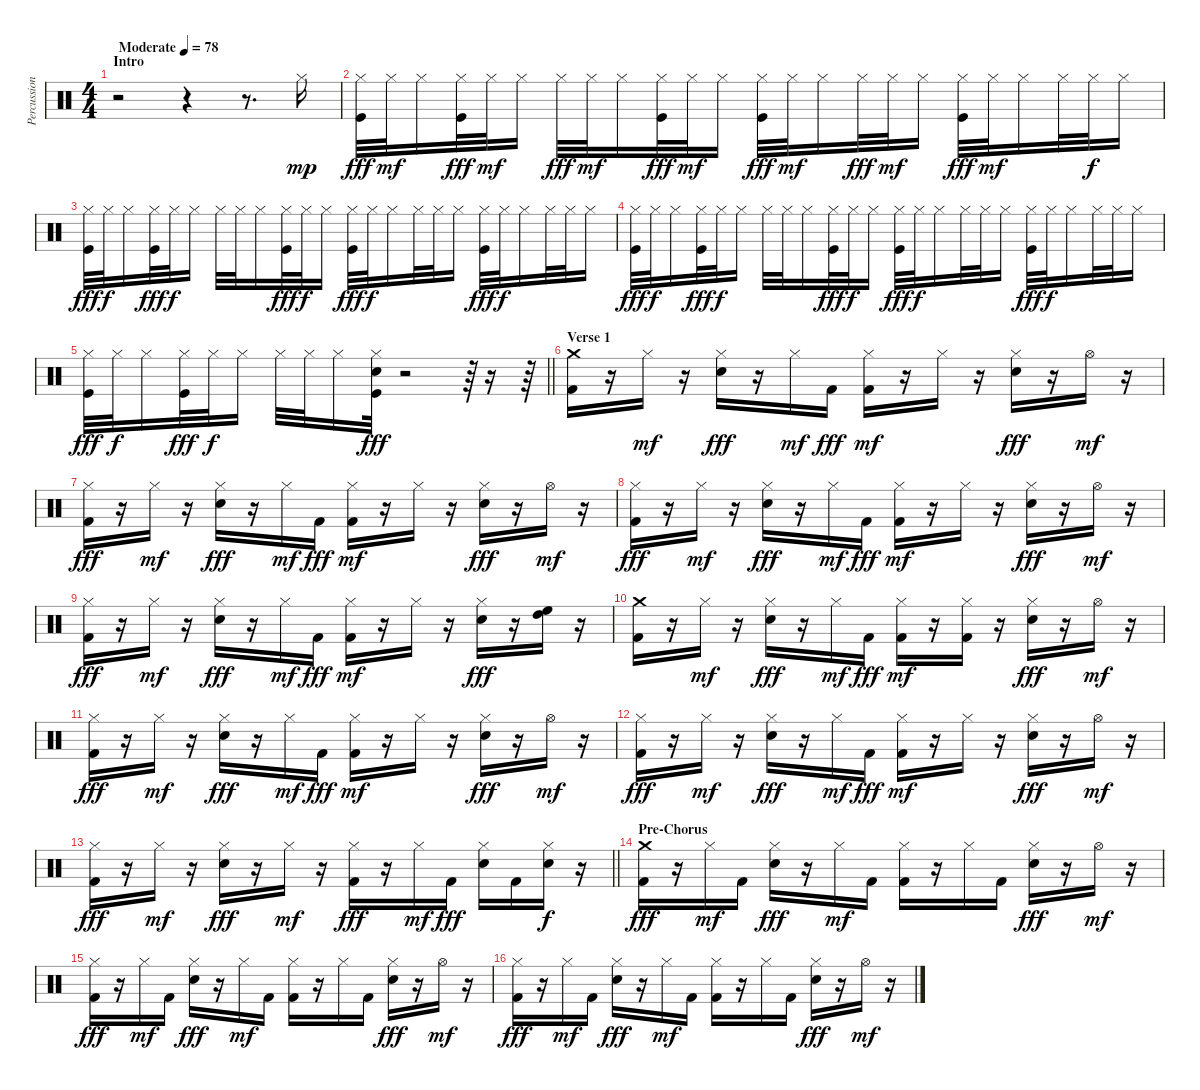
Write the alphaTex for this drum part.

\track ("Percussion" "Percussion") {instrument percussion}
\staff {score}
\articulation defaults
\ts (4 4)
\section ("" "Intro")
\tempo (78 "Moderate")
\clef neutral
\ks c
r.2{dy mp} r.4 r.8{d} "Hi-Hat (closed)".16 |
("Hi-Hat (closed)" "Kick (hit)").32{dy fff} "Hi-Hat (closed)".32{dy mf} "Hi-Hat (closed)".16 ("Hi-Hat (closed)" "Kick (hit)").32{dy fff} "Hi-Hat (closed)".32{dy mf} "Hi-Hat (closed)".16 "Hi-Hat (closed)".32{dy fff} "Hi-Hat (closed)".32{dy mf} "Hi-Hat (closed)".16 ("Hi-Hat (closed)" "Kick (hit)").32{dy fff} "Hi-Hat (closed)".32{dy mf} "Hi-Hat (closed)".16 ("Hi-Hat (closed)" "Kick (hit)").32{dy fff} "Hi-Hat (closed)".32{dy mf} "Hi-Hat (closed)".16 "Hi-Hat (closed)".32{dy fff} "Hi-Hat (closed)".32{dy mf} "Hi-Hat (closed)".16 ("Hi-Hat (closed)" "Kick (hit)").32{dy fff} "Hi-Hat (closed)".32{dy mf} "Hi-Hat (closed)".16 "Hi-Hat (closed)".32 "Hi-Hat (closed)".32{dy f} "Hi-Hat (closed)".16 |
("Hi-Hat (closed)" "Kick (hit)").32{dy fff} "Hi-Hat (closed)".32{dy f} "Hi-Hat (closed)".16 ("Hi-Hat (closed)" "Kick (hit)").32{dy fff} "Hi-Hat (closed)".32{dy f} "Hi-Hat (closed)".16 "Hi-Hat (closed)".32 "Hi-Hat (closed)".32 "Hi-Hat (closed)".16 ("Hi-Hat (closed)" "Kick (hit)").32{dy fff} "Hi-Hat (closed)".32{dy f} "Hi-Hat (closed)".16 ("Hi-Hat (closed)" "Kick (hit)").32{dy fff} "Hi-Hat (closed)".32{dy f} "Hi-Hat (closed)".16 "Hi-Hat (closed)".32 "Hi-Hat (closed)".32 "Hi-Hat (closed)".16 ("Hi-Hat (closed)" "Kick (hit)").32{dy fff} "Hi-Hat (closed)".32{dy f} "Hi-Hat (closed)".16 "Hi-Hat (closed)".32 "Hi-Hat (closed)".32 "Hi-Hat (closed)".16 |
("Hi-Hat (closed)" "Kick (hit)").32{dy fff} "Hi-Hat (closed)".32{dy f} "Hi-Hat (closed)".16 ("Hi-Hat (closed)" "Kick (hit)").32{dy fff} "Hi-Hat (closed)".32{dy f} "Hi-Hat (closed)".16 "Hi-Hat (closed)".32 "Hi-Hat (closed)".32 "Hi-Hat (closed)".16 ("Hi-Hat (closed)" "Kick (hit)").32{dy fff} "Hi-Hat (closed)".32{dy f} "Hi-Hat (closed)".16 ("Hi-Hat (closed)" "Kick (hit)").32{dy fff} "Hi-Hat (closed)".32{dy f} "Hi-Hat (closed)".16 "Hi-Hat (closed)".32 "Hi-Hat (closed)".32 "Hi-Hat (closed)".16 ("Hi-Hat (closed)" "Kick (hit)").32{dy fff} "Hi-Hat (closed)".32{dy f} "Hi-Hat (closed)".16 "Hi-Hat (closed)".32 "Hi-Hat (closed)".32 "Hi-Hat (closed)".16 |
\barLineRight lightlight
("Hi-Hat (closed)" "Kick (hit)").32{dy fff} "Hi-Hat (closed)".32{dy f} "Hi-Hat (closed)".16 ("Hi-Hat (closed)" "Kick (hit)").32{dy fff} "Hi-Hat (closed)".32{dy f} "Hi-Hat (closed)".16 "Hi-Hat (closed)".32 "Hi-Hat (closed)".32 "Hi-Hat (closed)".16 ("Hi-Hat (closed)" "Electric Snare (hit)" "Kick (hit)").32{dy fff} r.2 r.64 r.16 r.64 |
\section ("" "Verse 1")
("Crash medium (hit)" "Kick (hit) 2").16 r.16 "Hi-Hat (closed)".16{dy mf} r.16 ("Hi-Hat (closed)" "Electric Snare (hit)").16{dy fff} r.16 "Hi-Hat (closed)".16{dy mf} "Kick (hit) 2".16{dy fff} ("Hi-Hat (closed)" "Kick (hit) 2").16{dy mf} r.16 "Hi-Hat (closed)".16 r.16 ("Hi-Hat (closed)" "Electric Snare (hit)").16{dy fff} r.16 "Hi-Hat (open)".16{dy mf} r.16 |
("Hi-Hat (closed)" "Kick (hit) 2").16{dy fff} r.16 "Hi-Hat (closed)".16{dy mf} r.16 ("Hi-Hat (closed)" "Electric Snare (hit)").16{dy fff} r.16 "Hi-Hat (closed)".16{dy mf} "Kick (hit) 2".16{dy fff} ("Hi-Hat (closed)" "Kick (hit) 2").16{dy mf} r.16 "Hi-Hat (closed)".16 r.16 ("Hi-Hat (closed)" "Electric Snare (hit)").16{dy fff} r.16 "Hi-Hat (open)".16{dy mf} r.16 |
("Hi-Hat (closed)" "Kick (hit) 2").16{dy fff} r.16 "Hi-Hat (closed)".16{dy mf} r.16 ("Hi-Hat (closed)" "Electric Snare (hit)").16{dy fff} r.16 "Hi-Hat (closed)".16{dy mf} "Kick (hit) 2".16{dy fff} ("Hi-Hat (closed)" "Kick (hit) 2").16{dy mf} r.16 "Hi-Hat (closed)".16 r.16 ("Hi-Hat (closed)" "Electric Snare (hit)").16{dy fff} r.16 "Hi-Hat (open)".16{dy mf} r.16 |
("Hi-Hat (closed)" "Kick (hit) 2").16{dy fff} r.16 "Hi-Hat (closed)".16{dy mf} r.16 ("Hi-Hat (closed)" "Electric Snare (hit)").16{dy fff} r.16 "Hi-Hat (closed)".16{dy mf} "Kick (hit) 2".16{dy fff} ("Hi-Hat (closed)" "Kick (hit) 2").16{dy mf} r.16 "Hi-Hat (closed)".16 r.16 ("Hi-Hat (closed)" "Electric Snare (hit)").16{dy fff} r.16 ("High Floor Tom (hit)" "High Tom (hit)").16 r.16 |
("Crash medium (hit)" "Kick (hit) 2").16 r.16 "Hi-Hat (closed)".16{dy mf} r.16 ("Hi-Hat (closed)" "Electric Snare (hit)").16{dy fff} r.16 "Hi-Hat (closed)".16{dy mf} "Kick (hit) 2".16{dy fff} ("Hi-Hat (closed)" "Kick (hit) 2").16{dy mf} r.16 ("Hi-Hat (closed)" "Kick (hit) 2").16 r.16 ("Hi-Hat (closed)" "Electric Snare (hit)").16{dy fff} r.16 "Hi-Hat (open)".16{dy mf} r.16 |
("Hi-Hat (closed)" "Kick (hit) 2").16{dy fff} r.16 "Hi-Hat (closed)".16{dy mf} r.16 ("Hi-Hat (closed)" "Electric Snare (hit)").16{dy fff} r.16 "Hi-Hat (closed)".16{dy mf} "Kick (hit) 2".16{dy fff} ("Hi-Hat (closed)" "Kick (hit) 2").16{dy mf} r.16 "Hi-Hat (closed)".16 r.16 ("Hi-Hat (closed)" "Electric Snare (hit)").16{dy fff} r.16 "Hi-Hat (open)".16{dy mf} r.16 |
("Hi-Hat (closed)" "Kick (hit) 2").16{dy fff} r.16 "Hi-Hat (closed)".16{dy mf} r.16 ("Hi-Hat (closed)" "Electric Snare (hit)").16{dy fff} r.16 "Hi-Hat (closed)".16{dy mf} "Kick (hit) 2".16{dy fff} ("Hi-Hat (closed)" "Kick (hit) 2").16{dy mf} r.16 "Hi-Hat (closed)".16 r.16 ("Hi-Hat (closed)" "Electric Snare (hit)").16{dy fff} r.16 "Hi-Hat (open)".16{dy mf} r.16 |
\barLineRight lightlight
("Hi-Hat (closed)" "Kick (hit) 2").16{dy fff} r.16 "Hi-Hat (closed)".16{dy mf} r.16 ("Hi-Hat (closed)" "Electric Snare (hit)").16{dy fff} r.16 "Hi-Hat (closed)".16{dy mf} r.16 ("Hi-Hat (closed)" "Kick (hit) 2").16{dy fff} r.16 "Hi-Hat (closed)".16{dy mf} "Kick (hit) 2".16{dy fff} ("Hi-Hat (closed)" "Electric Snare (hit)").16 "Kick (hit) 2".16 ("Hi-Hat (closed)" "Electric Snare (hit)").16{dy f} r.16 |
\section ("" "Pre-Chorus")
("Crash medium (hit)" "Kick (hit) 2").16{dy fff} r.16 "Hi-Hat (closed)".16{dy mf} "Kick (hit) 2".16 ("Hi-Hat (closed)" "Electric Snare (hit)").16{dy fff} r.16 "Hi-Hat (closed)".16{dy mf} "Kick (hit) 2".16 ("Hi-Hat (closed)" "Kick (hit) 2").16 r.16 "Hi-Hat (closed)".16 "Kick (hit) 2".16 ("Hi-Hat (closed)" "Electric Snare (hit)").16{dy fff} r.16 "Hi-Hat (open)".16{dy mf} r.16 |
("Hi-Hat (closed)" "Kick (hit) 2").16{dy fff} r.16 "Hi-Hat (closed)".16{dy mf} "Kick (hit) 2".16 ("Hi-Hat (closed)" "Electric Snare (hit)").16{dy fff} r.16 "Hi-Hat (closed)".16{dy mf} "Kick (hit) 2".16 ("Hi-Hat (closed)" "Kick (hit) 2").16 r.16 "Hi-Hat (closed)".16 "Kick (hit) 2".16 ("Hi-Hat (closed)" "Electric Snare (hit)").16{dy fff} r.16 "Hi-Hat (open)".16{dy mf} r.16 |
("Hi-Hat (closed)" "Kick (hit) 2").16{dy fff} r.16 "Hi-Hat (closed)".16{dy mf} "Kick (hit) 2".16 ("Hi-Hat (closed)" "Electric Snare (hit)").16{dy fff} r.16 "Hi-Hat (closed)".16{dy mf} "Kick (hit) 2".16 ("Hi-Hat (closed)" "Kick (hit) 2").16 r.16 "Hi-Hat (closed)".16 "Kick (hit) 2".16 ("Hi-Hat (closed)" "Electric Snare (hit)").16{dy fff} r.16 "Hi-Hat (open)".16{dy mf} r.16
